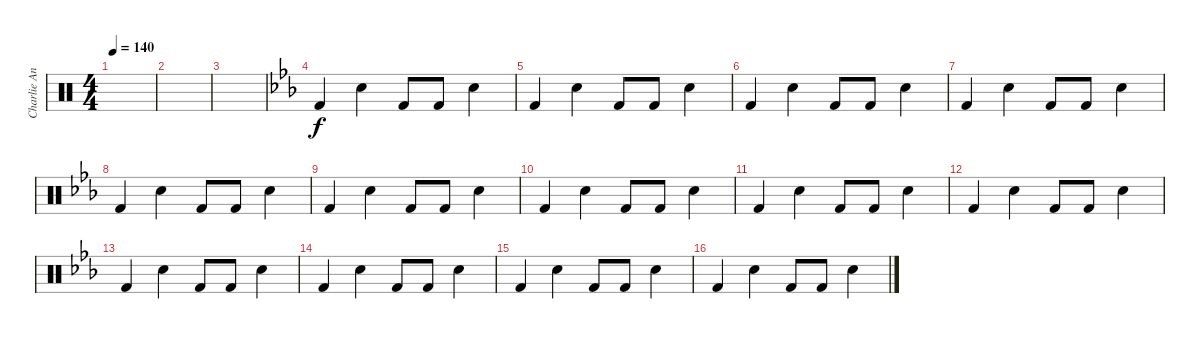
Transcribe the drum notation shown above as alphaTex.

\track ("Charlie Angel" "Charlie An") {instrument percussion}
\staff {score}
\articulation defaults
\ts (4 4)
\tempo 140
\clef neutral
\ks c
|
|
|
\ks eb "Kick (hit) 2".4 "Electric Snare (hit)".4 "Kick (hit) 2".8 "Kick (hit) 2".8 "Electric Snare (hit)".4
|
"Kick (hit) 2".4 "Electric Snare (hit)".4 "Kick (hit) 2".8 "Kick (hit) 2".8 "Electric Snare (hit)".4 |
"Kick (hit) 2".4 "Electric Snare (hit)".4 "Kick (hit) 2".8 "Kick (hit) 2".8 "Electric Snare (hit)".4 |
"Kick (hit) 2".4 "Electric Snare (hit)".4 "Kick (hit) 2".8 "Kick (hit) 2".8 "Electric Snare (hit)".4 |
"Kick (hit) 2".4 "Electric Snare (hit)".4 "Kick (hit) 2".8 "Kick (hit) 2".8 "Electric Snare (hit)".4 |
"Kick (hit) 2".4 "Electric Snare (hit)".4 "Kick (hit) 2".8 "Kick (hit) 2".8 "Electric Snare (hit)".4 |
"Kick (hit) 2".4 "Electric Snare (hit)".4 "Kick (hit) 2".8 "Kick (hit) 2".8 "Electric Snare (hit)".4 |
"Kick (hit) 2".4 "Electric Snare (hit)".4 "Kick (hit) 2".8 "Kick (hit) 2".8 "Electric Snare (hit)".4 |
"Kick (hit) 2".4 "Electric Snare (hit)".4 "Kick (hit) 2".8 "Kick (hit) 2".8 "Electric Snare (hit)".4 |
"Kick (hit) 2".4 "Electric Snare (hit)".4 "Kick (hit) 2".8 "Kick (hit) 2".8 "Electric Snare (hit)".4 |
"Kick (hit) 2".4 "Electric Snare (hit)".4 "Kick (hit) 2".8 "Kick (hit) 2".8 "Electric Snare (hit)".4 |
"Kick (hit) 2".4 "Electric Snare (hit)".4 "Kick (hit) 2".8 "Kick (hit) 2".8 "Electric Snare (hit)".4 |
"Kick (hit) 2".4 "Electric Snare (hit)".4 "Kick (hit) 2".8 "Kick (hit) 2".8 "Electric Snare (hit)".4
